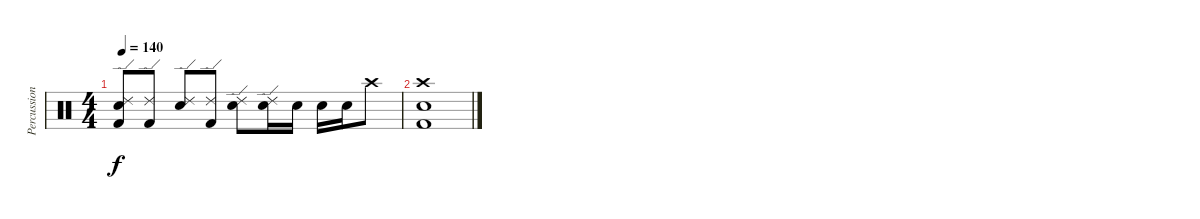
\track ("Percussion" "Percussion") {instrument percussion}
\staff {score}
\articulation defaults
\ts (4 4)
\tempo 140
\clef neutral
\ks c
("Kick (hit) 2" "Snare (hit) 2" "Ride (edge) 2").8{dy f} ("Kick (hit) 2" "Ride (edge) 2").8 ("Snare (hit) 2" "Ride (edge) 2").8 ("Kick (hit) 2" "Ride (edge) 2").8 ("Snare (hit) 2" "Ride (edge) 2").8 ("Snare (hit) 2" "Ride (edge) 2").16 "Snare (hit) 2".16 "Snare (hit) 2".16 "Snare (hit) 2".16 "Crash high (hit)".8 |
("Kick (hit) 2" "Snare (hit) 2" "Crash high (hit)").1
